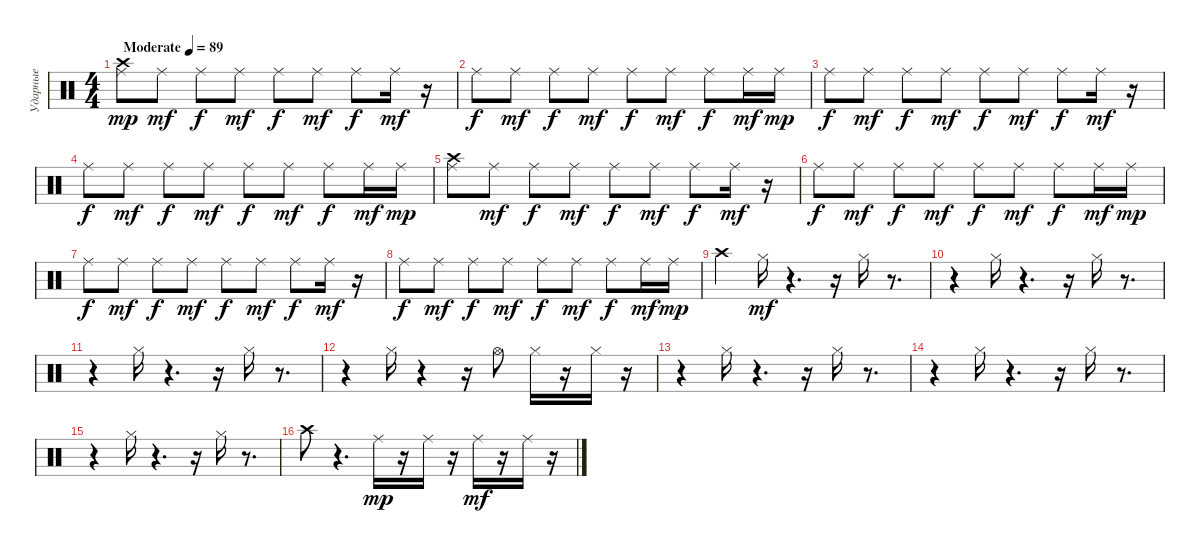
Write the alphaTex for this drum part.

\track ("Ударные" "Ударные") {instrument percussion}
\staff {score}
\articulation defaults
\ts (4 4)
\tempo (89 "Moderate")
\clef neutral
\ks c
("Ride (middle)" "Crash high (hit)").8{dy mp} "Ride (middle)".8{dy mf} "Ride (middle)".8{dy f} "Ride (middle)".8{dy mf} "Ride (middle)".8{dy f} "Ride (middle)".8{dy mf} "Ride (middle)".8{dy f} "Ride (middle)".16{dy mf} r.16 |
"Ride (middle)".8{dy f} "Ride (middle)".8{dy mf} "Ride (middle)".8{dy f} "Ride (middle)".8{dy mf} "Ride (middle)".8{dy f} "Ride (middle)".8{dy mf} "Ride (middle)".8{dy f} "Ride (middle)".16{dy mf} "Ride (middle)".16{dy mp} |
"Ride (middle)".8{dy f} "Ride (middle)".8{dy mf} "Ride (middle)".8{dy f} "Ride (middle)".8{dy mf} "Ride (middle)".8{dy f} "Ride (middle)".8{dy mf} "Ride (middle)".8{dy f} "Ride (middle)".16{dy mf} r.16 |
"Ride (middle)".8{dy f} "Ride (middle)".8{dy mf} "Ride (middle)".8{dy f} "Ride (middle)".8{dy mf} "Ride (middle)".8{dy f} "Ride (middle)".8{dy mf} "Ride (middle)".8{dy f} "Ride (middle)".16{dy mf} "Ride (middle)".16{dy mp} |
("Ride (middle)" "Crash high (hit)").8 "Ride (middle)".8{dy mf} "Ride (middle)".8{dy f} "Ride (middle)".8{dy mf} "Ride (middle)".8{dy f} "Ride (middle)".8{dy mf} "Ride (middle)".8{dy f} "Ride (middle)".16{dy mf} r.16 |
"Ride (middle)".8{dy f} "Ride (middle)".8{dy mf} "Ride (middle)".8{dy f} "Ride (middle)".8{dy mf} "Ride (middle)".8{dy f} "Ride (middle)".8{dy mf} "Ride (middle)".8{dy f} "Ride (middle)".16{dy mf} "Ride (middle)".16{dy mp} |
"Ride (middle)".8{dy f} "Ride (middle)".8{dy mf} "Ride (middle)".8{dy f} "Ride (middle)".8{dy mf} "Ride (middle)".8{dy f} "Ride (middle)".8{dy mf} "Ride (middle)".8{dy f} "Ride (middle)".16{dy mf} r.16 |
"Ride (middle)".8{dy f} "Ride (middle)".8{dy mf} "Ride (middle)".8{dy f} "Ride (middle)".8{dy mf} "Ride (middle)".8{dy f} "Ride (middle)".8{dy mf} "Ride (middle)".8{dy f} "Ride (middle)".16{dy mf} "Ride (middle)".16{dy mp} |
"Crash high (hit)".4 "Hi-Hat (closed)".16{dy mf} r.4{d} r.16 "Hi-Hat (closed)".16 r.8{d} |
r.4 "Hi-Hat (closed)".16 r.4{d} r.16 "Hi-Hat (closed)".16 r.8{d} |
r.4 "Hi-Hat (closed)".16 r.4{d} r.16 "Hi-Hat (closed)".16 r.8{d} |
r.4 "Hi-Hat (closed)".16 r.4 r.16 "Hi-Hat (open)".8 "Hi-Hat (closed)".16 r.16 "Hi-Hat (closed)".16 r.16 |
r.4 "Hi-Hat (closed)".16 r.4{d} r.16 "Hi-Hat (closed)".16 r.8{d} |
r.4 "Hi-Hat (closed)".16 r.4{d} r.16 "Hi-Hat (closed)".16 r.8{d} |
r.4 "Hi-Hat (closed)".16 r.4{d} r.16 "Hi-Hat (closed)".16 r.8{d} |
"Crash high (hit)".8 r.4{d} "Ride (middle)".16{dy mp} r.16 "Ride (middle)".16 r.16 "Ride (middle)".16{dy mf} r.16 "Ride (middle)".16 r.16
